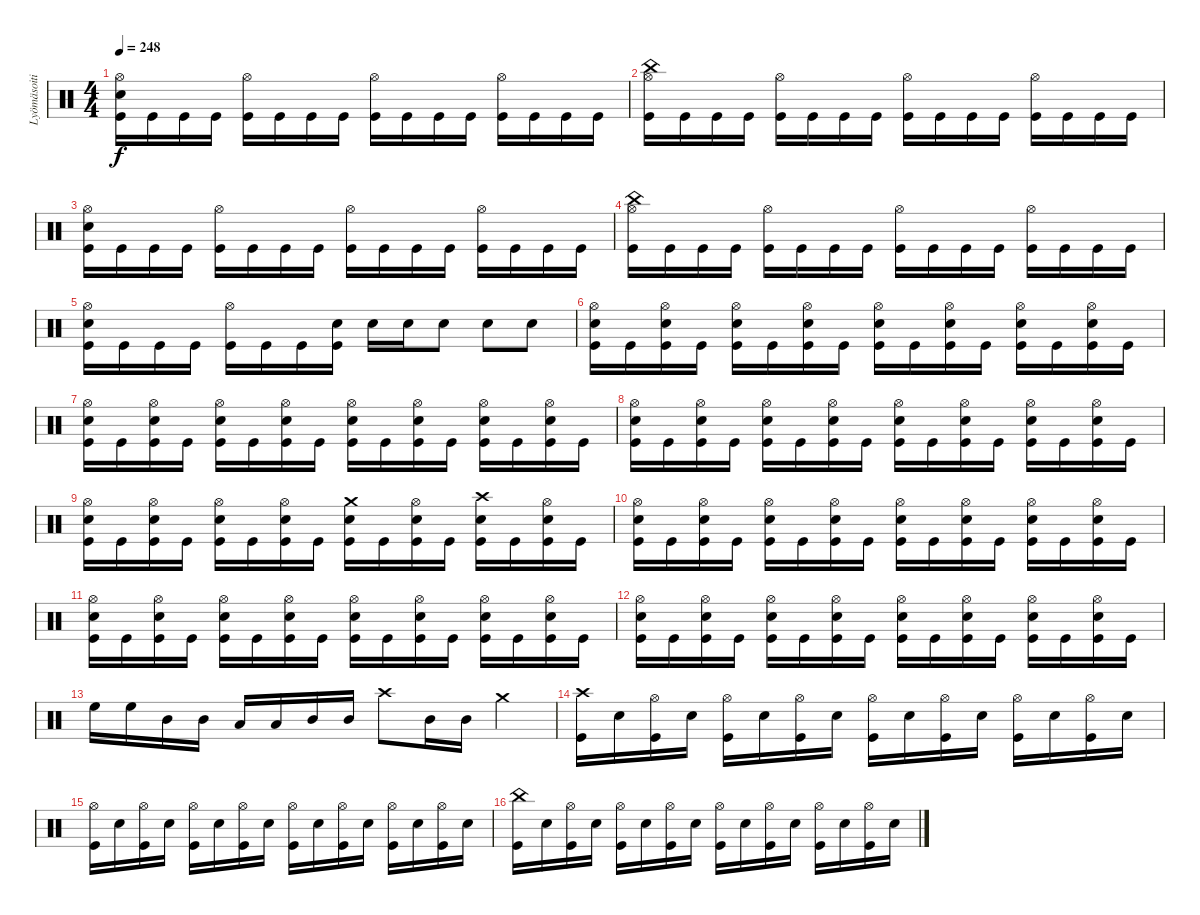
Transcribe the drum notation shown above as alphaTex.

\track ("Lyömäsoitin" "Lyömäsoiti") {instrument percussion}
\staff {score}
\articulation defaults
\ts (4 4)
\tempo 248
\clef neutral
\ks c
("Hi-Hat (open)" "Snare (hit) 2" "Kick (hit)").16{dy f} "Kick (hit)".16 "Kick (hit)".16 "Kick (hit)".16 ("Hi-Hat (open)" "Kick (hit)").16 "Kick (hit)".16 "Kick (hit)".16 "Kick (hit)".16 ("Hi-Hat (open)" "Kick (hit)").16 "Kick (hit)".16 "Kick (hit)".16 "Kick (hit)".16 ("Hi-Hat (open)" "Kick (hit)").16 "Kick (hit)".16 "Kick (hit)".16 "Kick (hit)".16 |
("China (hit)" "Hi-Hat (open)" "Kick (hit)").16 "Kick (hit)".16 "Kick (hit)".16 "Kick (hit)".16 ("Hi-Hat (open)" "Kick (hit)").16 "Kick (hit)".16 "Kick (hit)".16 "Kick (hit)".16 ("Hi-Hat (open)" "Kick (hit)").16 "Kick (hit)".16 "Kick (hit)".16 "Kick (hit)".16 ("Hi-Hat (open)" "Kick (hit)").16 "Kick (hit)".16 "Kick (hit)".16 "Kick (hit)".16 |
("Hi-Hat (open)" "Snare (hit) 2" "Kick (hit)").16 "Kick (hit)".16 "Kick (hit)".16 "Kick (hit)".16 ("Hi-Hat (open)" "Kick (hit)").16 "Kick (hit)".16 "Kick (hit)".16 "Kick (hit)".16 ("Hi-Hat (open)" "Kick (hit)").16 "Kick (hit)".16 "Kick (hit)".16 "Kick (hit)".16 ("Hi-Hat (open)" "Kick (hit)").16 "Kick (hit)".16 "Kick (hit)".16 "Kick (hit)".16 |
("China (hit)" "Hi-Hat (open)" "Kick (hit)").16 "Kick (hit)".16 "Kick (hit)".16 "Kick (hit)".16 ("Hi-Hat (open)" "Kick (hit)").16 "Kick (hit)".16 "Kick (hit)".16 "Kick (hit)".16 ("Hi-Hat (open)" "Kick (hit)").16 "Kick (hit)".16 "Kick (hit)".16 "Kick (hit)".16 ("Hi-Hat (open)" "Kick (hit)").16 "Kick (hit)".16 "Kick (hit)".16 "Kick (hit)".16 |
("Hi-Hat (open)" "Snare (hit) 2" "Kick (hit)").16 "Kick (hit)".16 "Kick (hit)".16 "Kick (hit)".16 ("Hi-Hat (open)" "Kick (hit)").16 "Kick (hit)".16 "Kick (hit)".16 ("Snare (hit) 2" "Kick (hit)").16 "Snare (hit) 2".16 "Snare (hit) 2".16 "Snare (hit) 2".8 "Snare (hit) 2".8 "Snare (hit) 2".8 |
("Hi-Hat (open)" "Snare (hit) 2" "Kick (hit)").16 "Kick (hit)".16 ("Hi-Hat (open)" "Snare (hit) 2" "Kick (hit)").16 "Kick (hit)".16 ("Hi-Hat (open)" "Snare (hit) 2" "Kick (hit)").16 "Kick (hit)".16 ("Hi-Hat (open)" "Snare (hit) 2" "Kick (hit)").16 "Kick (hit)".16 ("Hi-Hat (open)" "Snare (hit) 2" "Kick (hit)").16 "Kick (hit)".16 ("Hi-Hat (open)" "Snare (hit) 2" "Kick (hit)").16 "Kick (hit)".16 ("Hi-Hat (open)" "Snare (hit) 2" "Kick (hit)").16 "Kick (hit)".16 ("Hi-Hat (open)" "Snare (hit) 2" "Kick (hit)").16 "Kick (hit)".16 |
("Hi-Hat (open)" "Snare (hit) 2" "Kick (hit)").16 "Kick (hit)".16 ("Hi-Hat (open)" "Snare (hit) 2" "Kick (hit)").16 "Kick (hit)".16 ("Hi-Hat (open)" "Snare (hit) 2" "Kick (hit)").16 "Kick (hit)".16 ("Hi-Hat (open)" "Snare (hit) 2" "Kick (hit)").16 "Kick (hit)".16 ("Hi-Hat (open)" "Snare (hit) 2" "Kick (hit)").16 "Kick (hit)".16 ("Hi-Hat (open)" "Snare (hit) 2" "Kick (hit)").16 "Kick (hit)".16 ("Hi-Hat (open)" "Snare (hit) 2" "Kick (hit)").16 "Kick (hit)".16 ("Hi-Hat (open)" "Snare (hit) 2" "Kick (hit)").16 "Kick (hit)".16 |
("Hi-Hat (open)" "Snare (hit) 2" "Kick (hit)").16 "Kick (hit)".16 ("Hi-Hat (open)" "Snare (hit) 2" "Kick (hit)").16 "Kick (hit)".16 ("Hi-Hat (open)" "Snare (hit) 2" "Kick (hit)").16 "Kick (hit)".16 ("Hi-Hat (open)" "Snare (hit) 2" "Kick (hit)").16 "Kick (hit)".16 ("Hi-Hat (open)" "Snare (hit) 2" "Kick (hit)").16 "Kick (hit)".16 ("Hi-Hat (open)" "Snare (hit) 2" "Kick (hit)").16 "Kick (hit)".16 ("Hi-Hat (open)" "Snare (hit) 2" "Kick (hit)").16 "Kick (hit)".16 ("Hi-Hat (open)" "Snare (hit) 2" "Kick (hit)").16 "Kick (hit)".16 |
("Hi-Hat (open)" "Snare (hit) 2" "Kick (hit)").16 "Kick (hit)".16 ("Hi-Hat (open)" "Snare (hit) 2" "Kick (hit)").16 "Kick (hit)".16 ("Hi-Hat (open)" "Snare (hit) 2" "Kick (hit)").16 "Kick (hit)".16 ("Hi-Hat (open)" "Snare (hit) 2" "Kick (hit)").16 "Kick (hit)".16 ("Crash medium (hit)" "Snare (hit) 2" "Kick (hit)").16 "Kick (hit)".16 ("Hi-Hat (open)" "Snare (hit) 2" "Kick (hit)").16 "Kick (hit)".16 ("Crash high (hit)" "Snare (hit) 2" "Kick (hit)").16 "Kick (hit)".16 ("Hi-Hat (open)" "Snare (hit) 2" "Kick (hit)").16 "Kick (hit)".16 |
("Hi-Hat (open)" "Snare (hit) 2" "Kick (hit)").16 "Kick (hit)".16 ("Hi-Hat (open)" "Snare (hit) 2" "Kick (hit)").16 "Kick (hit)".16 ("Hi-Hat (open)" "Snare (hit) 2" "Kick (hit)").16 "Kick (hit)".16 ("Hi-Hat (open)" "Snare (hit) 2" "Kick (hit)").16 "Kick (hit)".16 ("Hi-Hat (open)" "Snare (hit) 2" "Kick (hit)").16 "Kick (hit)".16 ("Hi-Hat (open)" "Snare (hit) 2" "Kick (hit)").16 "Kick (hit)".16 ("Hi-Hat (open)" "Snare (hit) 2" "Kick (hit)").16 "Kick (hit)".16 ("Hi-Hat (open)" "Snare (hit) 2" "Kick (hit)").16 "Kick (hit)".16 |
("Hi-Hat (open)" "Snare (hit) 2" "Kick (hit)").16 "Kick (hit)".16 ("Hi-Hat (open)" "Snare (hit) 2" "Kick (hit)").16 "Kick (hit)".16 ("Hi-Hat (open)" "Snare (hit) 2" "Kick (hit)").16 "Kick (hit)".16 ("Hi-Hat (open)" "Snare (hit) 2" "Kick (hit)").16 "Kick (hit)".16 ("Hi-Hat (open)" "Snare (hit) 2" "Kick (hit)").16 "Kick (hit)".16 ("Hi-Hat (open)" "Snare (hit) 2" "Kick (hit)").16 "Kick (hit)".16 ("Hi-Hat (open)" "Snare (hit) 2" "Kick (hit)").16 "Kick (hit)".16 ("Hi-Hat (open)" "Snare (hit) 2" "Kick (hit)").16 "Kick (hit)".16 |
("Hi-Hat (open)" "Snare (hit) 2" "Kick (hit)").16 "Kick (hit)".16 ("Hi-Hat (open)" "Snare (hit) 2" "Kick (hit)").16 "Kick (hit)".16 ("Hi-Hat (open)" "Snare (hit) 2" "Kick (hit)").16 "Kick (hit)".16 ("Hi-Hat (open)" "Snare (hit) 2" "Kick (hit)").16 "Kick (hit)".16 ("Hi-Hat (open)" "Snare (hit) 2" "Kick (hit)").16 "Kick (hit)".16 ("Hi-Hat (open)" "Snare (hit) 2" "Kick (hit)").16 "Kick (hit)".16 ("Hi-Hat (open)" "Snare (hit) 2" "Kick (hit)").16 "Kick (hit)".16 ("Hi-Hat (open)" "Snare (hit) 2" "Kick (hit)").16 "Kick (hit)".16 |
"High Floor Tom (hit)".16 "High Floor Tom (hit)".16 "Mid Tom (hit)".16 "Mid Tom (hit)".16 "Low Tom (hit)".16 "Low Tom (hit)".16 "Mid Tom (hit)".16 "Mid Tom (hit)".16 "Crash high (hit)".8 "Mid Tom (hit)".16 "Mid Tom (hit)".16 "Crash medium (hit)".4 |
("Crash high (hit)" "Kick (hit)").16 "Snare (hit) 2".16 ("Hi-Hat (open)" "Kick (hit)").16 "Snare (hit) 2".16 ("Hi-Hat (open)" "Kick (hit)").16 "Snare (hit) 2".16 ("Hi-Hat (open)" "Kick (hit)").16 "Snare (hit) 2".16 ("Hi-Hat (open)" "Kick (hit)").16 "Snare (hit) 2".16 ("Hi-Hat (open)" "Kick (hit)").16 "Snare (hit) 2".16 ("Hi-Hat (open)" "Kick (hit)").16 "Snare (hit) 2".16 ("Hi-Hat (open)" "Kick (hit)").16 "Snare (hit) 2".16 |
("Hi-Hat (open)" "Kick (hit)").16 "Snare (hit) 2".16 ("Hi-Hat (open)" "Kick (hit)").16 "Snare (hit) 2".16 ("Hi-Hat (open)" "Kick (hit)").16 "Snare (hit) 2".16 ("Hi-Hat (open)" "Kick (hit)").16 "Snare (hit) 2".16 ("Hi-Hat (open)" "Kick (hit)").16 "Snare (hit) 2".16 ("Hi-Hat (open)" "Kick (hit)").16 "Snare (hit) 2".16 ("Hi-Hat (open)" "Kick (hit)").16 "Snare (hit) 2".16 ("Hi-Hat (open)" "Kick (hit)").16 "Snare (hit) 2".16 |
("China (hit)" "Kick (hit)").16 "Snare (hit) 2".16 ("Hi-Hat (open)" "Kick (hit)").16 "Snare (hit) 2".16 ("Hi-Hat (open)" "Kick (hit)").16 "Snare (hit) 2".16 ("Hi-Hat (open)" "Kick (hit)").16 "Snare (hit) 2".16 ("Hi-Hat (open)" "Kick (hit)").16 "Snare (hit) 2".16 ("Hi-Hat (open)" "Kick (hit)").16 "Snare (hit) 2".16 ("Hi-Hat (open)" "Kick (hit)").16 "Snare (hit) 2".16 ("Hi-Hat (open)" "Kick (hit)").16 "Snare (hit) 2".16
